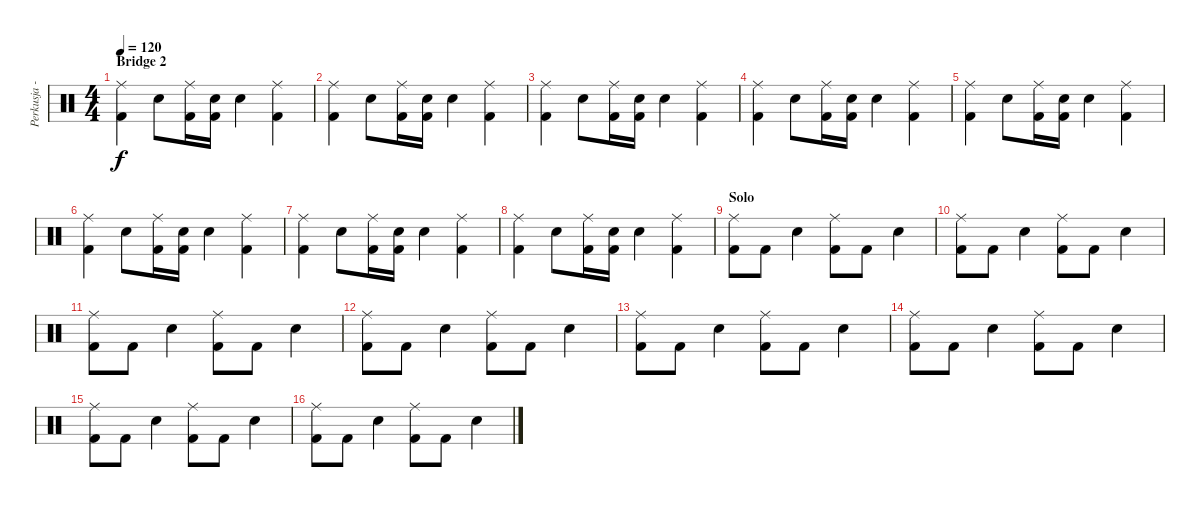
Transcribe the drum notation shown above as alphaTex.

\track ("Perkusja - Mielony" "Perkusja -") {instrument percussion}
\staff {score}
\articulation defaults
\ts (4 4)
\section ("" "Bridge 2")
\tempo 120
\clef neutral
\ks c
("Ride (middle)" "Kick (hit) 2").4{dy f} "Snare (hit) 2".8 ("Ride (middle)" "Kick (hit) 2").16 ("Snare (hit) 2" "Kick (hit) 2").16 "Snare (hit) 2".4 ("Ride (middle)" "Kick (hit) 2").4 |
("Ride (middle)" "Kick (hit) 2").4 "Snare (hit) 2".8 ("Ride (middle)" "Kick (hit) 2").16 ("Snare (hit) 2" "Kick (hit) 2").16 "Snare (hit) 2".4 ("Ride (middle)" "Kick (hit) 2").4 |
("Ride (middle)" "Kick (hit) 2").4 "Snare (hit) 2".8 ("Ride (middle)" "Kick (hit) 2").16 ("Snare (hit) 2" "Kick (hit) 2").16 "Snare (hit) 2".4 ("Ride (middle)" "Kick (hit) 2").4 |
("Ride (middle)" "Kick (hit) 2").4 "Snare (hit) 2".8 ("Ride (middle)" "Kick (hit) 2").16 ("Snare (hit) 2" "Kick (hit) 2").16 "Snare (hit) 2".4 ("Ride (middle)" "Kick (hit) 2").4 |
("Ride (middle)" "Kick (hit) 2").4 "Snare (hit) 2".8 ("Ride (middle)" "Kick (hit) 2").16 ("Snare (hit) 2" "Kick (hit) 2").16 "Snare (hit) 2".4 ("Ride (middle)" "Kick (hit) 2").4 |
("Ride (middle)" "Kick (hit) 2").4 "Snare (hit) 2".8 ("Ride (middle)" "Kick (hit) 2").16 ("Snare (hit) 2" "Kick (hit) 2").16 "Snare (hit) 2".4 ("Ride (middle)" "Kick (hit) 2").4 |
("Ride (middle)" "Kick (hit) 2").4 "Snare (hit) 2".8 ("Ride (middle)" "Kick (hit) 2").16 ("Snare (hit) 2" "Kick (hit) 2").16 "Snare (hit) 2".4 ("Ride (middle)" "Kick (hit) 2").4 |
("Ride (middle)" "Kick (hit) 2").4 "Snare (hit) 2".8 ("Ride (middle)" "Kick (hit) 2").16 ("Snare (hit) 2" "Kick (hit) 2").16 "Snare (hit) 2".4 ("Ride (middle)" "Kick (hit) 2").4 |
\section ("" "Solo")
("Ride (middle)" "Kick (hit) 2").8 "Kick (hit) 2".8 "Snare (hit) 2".4 ("Ride (middle)" "Kick (hit) 2").8 "Kick (hit) 2".8 "Snare (hit) 2".4 |
("Ride (middle)" "Kick (hit) 2").8 "Kick (hit) 2".8 "Snare (hit) 2".4 ("Ride (middle)" "Kick (hit) 2").8 "Kick (hit) 2".8 "Snare (hit) 2".4 |
("Ride (middle)" "Kick (hit) 2").8 "Kick (hit) 2".8 "Snare (hit) 2".4 ("Ride (middle)" "Kick (hit) 2").8 "Kick (hit) 2".8 "Snare (hit) 2".4 |
("Ride (middle)" "Kick (hit) 2").8 "Kick (hit) 2".8 "Snare (hit) 2".4 ("Ride (middle)" "Kick (hit) 2").8 "Kick (hit) 2".8 "Snare (hit) 2".4 |
("Ride (middle)" "Kick (hit) 2").8 "Kick (hit) 2".8 "Snare (hit) 2".4 ("Ride (middle)" "Kick (hit) 2").8 "Kick (hit) 2".8 "Snare (hit) 2".4 |
("Ride (middle)" "Kick (hit) 2").8 "Kick (hit) 2".8 "Snare (hit) 2".4 ("Ride (middle)" "Kick (hit) 2").8 "Kick (hit) 2".8 "Snare (hit) 2".4 |
("Ride (middle)" "Kick (hit) 2").8 "Kick (hit) 2".8 "Snare (hit) 2".4 ("Ride (middle)" "Kick (hit) 2").8 "Kick (hit) 2".8 "Snare (hit) 2".4 |
("Ride (middle)" "Kick (hit) 2").8 "Kick (hit) 2".8 "Snare (hit) 2".4 ("Ride (middle)" "Kick (hit) 2").8 "Kick (hit) 2".8 "Snare (hit) 2".4
